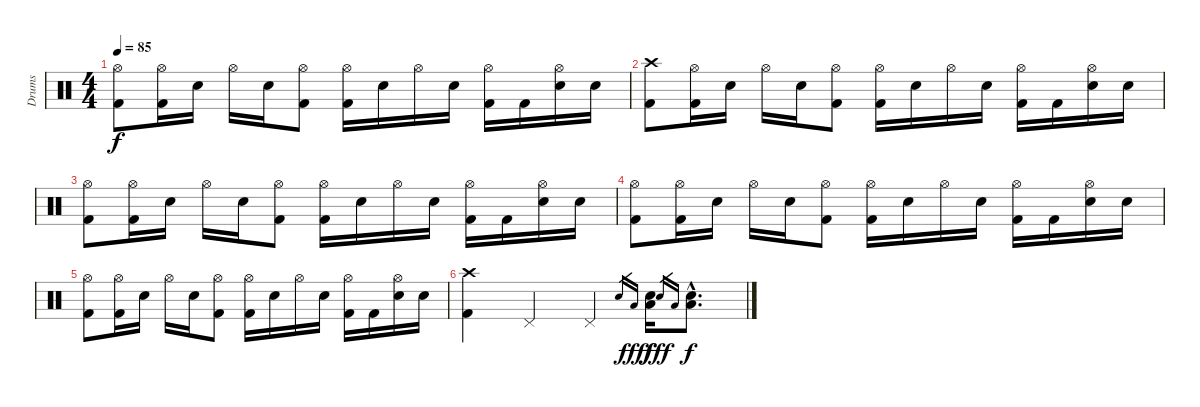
\track ("Drums" "Drums") {instrument percussion}
\staff {score}
\articulation defaults
\ts (4 4)
\tempo 85
\clef neutral
\ks c
("Hi-Hat (open)" "Kick (hit) 2").8{dy f} ("Hi-Hat (open)" "Kick (hit) 2").16 "Electric Snare (hit)".16 "Hi-Hat (open)".16 "Electric Snare (hit)".16 ("Hi-Hat (open)" "Kick (hit) 2").8 ("Hi-Hat (open)" "Kick (hit) 2").16 "Electric Snare (hit)".16 "Hi-Hat (open)".16 "Electric Snare (hit)".16 ("Hi-Hat (open)" "Kick (hit) 2").16 "Kick (hit) 2".16 ("Hi-Hat (open)" "Electric Snare (hit)").16 "Electric Snare (hit)".16 |
("Crash high (hit)" "Kick (hit) 2").8 ("Hi-Hat (open)" "Kick (hit) 2").16 "Electric Snare (hit)".16 "Hi-Hat (open)".16 "Electric Snare (hit)".16 ("Hi-Hat (open)" "Kick (hit) 2").8 ("Hi-Hat (open)" "Kick (hit) 2").16 "Electric Snare (hit)".16 "Hi-Hat (open)".16 "Electric Snare (hit)".16 ("Hi-Hat (open)" "Kick (hit) 2").16 "Kick (hit) 2".16 ("Hi-Hat (open)" "Electric Snare (hit)").16 "Electric Snare (hit)".16 |
("Hi-Hat (open)" "Kick (hit) 2").8 ("Hi-Hat (open)" "Kick (hit) 2").16 "Electric Snare (hit)".16 "Hi-Hat (open)".16 "Electric Snare (hit)".16 ("Hi-Hat (open)" "Kick (hit) 2").8 ("Hi-Hat (open)" "Kick (hit) 2").16 "Electric Snare (hit)".16 "Hi-Hat (open)".16 "Electric Snare (hit)".16 ("Hi-Hat (open)" "Kick (hit) 2").16 "Kick (hit) 2".16 ("Hi-Hat (open)" "Electric Snare (hit)").16 "Electric Snare (hit)".16 |
("Hi-Hat (open)" "Kick (hit) 2").8 ("Hi-Hat (open)" "Kick (hit) 2").16 "Electric Snare (hit)".16 "Hi-Hat (open)".16 "Electric Snare (hit)".16 ("Hi-Hat (open)" "Kick (hit) 2").8 ("Hi-Hat (open)" "Kick (hit) 2").16 "Electric Snare (hit)".16 "Hi-Hat (open)".16 "Electric Snare (hit)".16 ("Hi-Hat (open)" "Kick (hit) 2").16 "Kick (hit) 2".16 ("Hi-Hat (open)" "Electric Snare (hit)").16 "Electric Snare (hit)".16 |
("Hi-Hat (open)" "Kick (hit) 2").8 ("Hi-Hat (open)" "Kick (hit) 2").16 "Electric Snare (hit)".16 "Hi-Hat (open)".16 "Electric Snare (hit)".16 ("Hi-Hat (open)" "Kick (hit) 2").8 ("Hi-Hat (open)" "Kick (hit) 2").16 "Electric Snare (hit)".16 "Hi-Hat (open)".16 "Electric Snare (hit)".16 ("Hi-Hat (open)" "Kick (hit) 2").16 "Kick (hit) 2".16 ("Hi-Hat (open)" "Electric Snare (hit)").16 "Electric Snare (hit)".16 |
("Crash high (hit)" "Kick (hit) 2").4 "Pedal Hi-Hat (hit)".4 "Pedal Hi-Hat (hit)".4 "Electric Snare (hit)".16{gr} "Low Floor Tom (hit)".16{gr dy fff} ("Electric Snare (hit)" "Low Floor Tom (hit)").16{dy f} "Electric Snare (hit)".16{gr dy fff} "Low Floor Tom (hit)".16{gr} ("Electric Snare (hit)"{hac} "Low Floor Tom (hit)"{hac}).8{d dy f}
